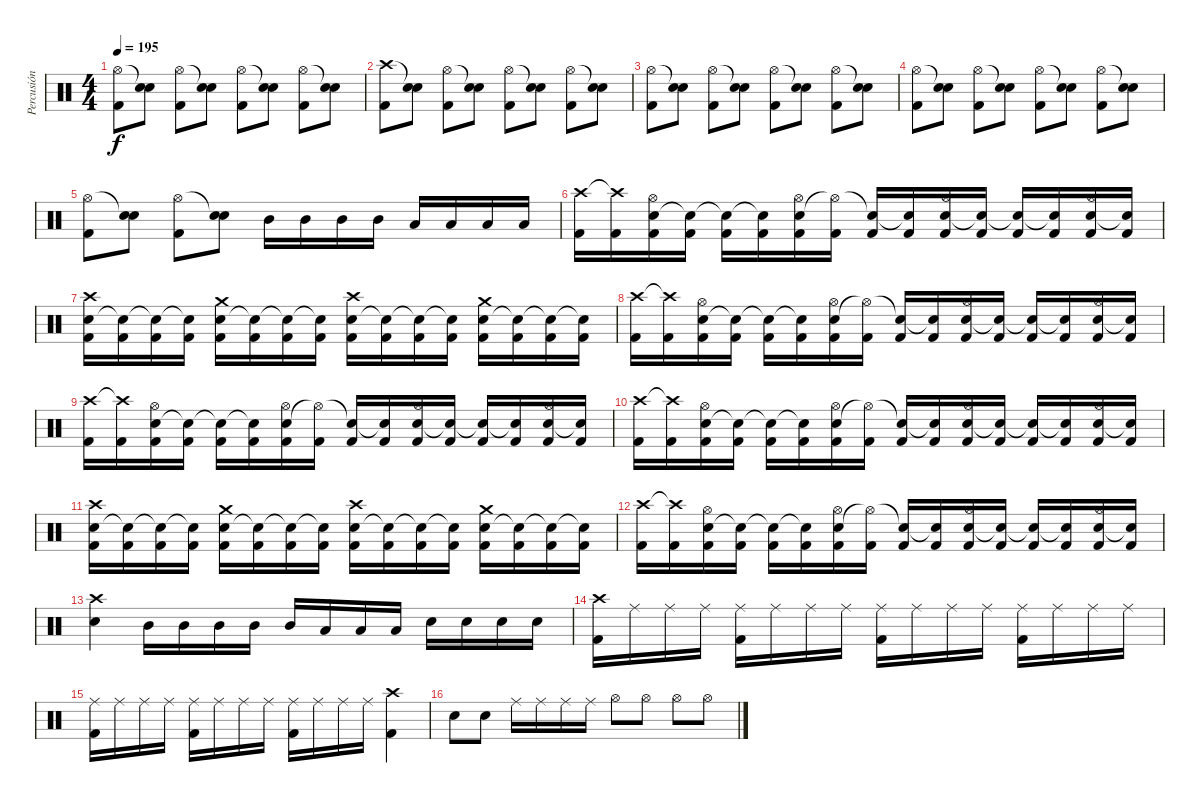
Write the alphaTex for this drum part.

\track ("Percusión" "Percusión") {instrument percussion}
\staff {score}
\articulation defaults
\ts (4 4)
\tempo 195
\clef neutral
\ks c
("Kick (hit) 2" "Hi-Hat (open)").8{dy f} ("Snare (hit) 2" "Snare (hit)"{t}).8 ("Kick (hit) 2" "Hi-Hat (open)").8 ("Snare (hit) 2" "Snare (hit)"{t}).8 ("Kick (hit) 2" "Hi-Hat (open)").8 ("Snare (hit) 2" "Snare (hit)"{t}).8 ("Kick (hit) 2" "Hi-Hat (open)").8 ("Snare (hit) 2" "Snare (hit)"{t}).8 |
("Kick (hit) 2" "Crash high (hit)").8 ("Snare (hit) 2" "Snare (hit)"{t}).8 ("Kick (hit) 2" "Hi-Hat (open)").8 ("Snare (hit) 2" "Snare (hit)"{t}).8 ("Kick (hit) 2" "Hi-Hat (open)").8 ("Snare (hit) 2" "Snare (hit)"{t}).8 ("Kick (hit) 2" "Hi-Hat (open)").8 ("Snare (hit) 2" "Snare (hit)"{t}).8 |
("Kick (hit) 2" "Hi-Hat (open)").8 ("Snare (hit) 2" "Snare (hit)"{t}).8 ("Kick (hit) 2" "Hi-Hat (open)").8 ("Snare (hit) 2" "Snare (hit)"{t}).8 ("Kick (hit) 2" "Hi-Hat (open)").8 ("Snare (hit) 2" "Snare (hit)"{t}).8 ("Kick (hit) 2" "Hi-Hat (open)").8 ("Snare (hit) 2" "Snare (hit)"{t}).8 |
("Kick (hit) 2" "Hi-Hat (open)").8 ("Snare (hit) 2" "Snare (hit)"{t}).8 ("Kick (hit) 2" "Hi-Hat (open)").8 ("Snare (hit) 2" "Snare (hit)"{t}).8 ("Kick (hit) 2" "Hi-Hat (open)").8 ("Snare (hit) 2" "Snare (hit)"{t}).8 ("Kick (hit) 2" "Hi-Hat (open)").8 ("Snare (hit) 2" "Snare (hit)"{t}).8 |
("Kick (hit) 2" "Hi-Hat (open)").8 ("Snare (hit) 2" "Snare (hit)"{t}).8 ("Kick (hit) 2" "Hi-Hat (open)").8 ("Snare (hit) 2" "Snare (hit)"{t}).8 "Mid Tom (hit)".16 "Mid Tom (hit)".16 "Mid Tom (hit)".16 "Mid Tom (hit)".16 "Low Tom (hit)".16 "Low Tom (hit)".16 "Low Tom (hit)".16 "Low Tom (hit)".16 |
("Kick (hit) 2" "Crash high (hit)").16 ("Kick (hit) 2" "Crash high (hit)"{t}).16 ("Kick (hit) 2" "Snare (hit) 2" "Hi-Hat (open)").16 ("Kick (hit) 2" "Snare (hit)"{t}).16 ("Kick (hit) 2" "Snare (hit)"{t}).16 ("Kick (hit) 2" "Snare (hit)"{t}).16 ("Kick (hit) 2" "Snare (hit) 2" "Hi-Hat (open)").16 ("Kick (hit) 2" "Hi-Hat (open)"{t}).16 ("Kick (hit) 2" "Snare (hit)"{t}).16 ("Kick (hit) 2" "Snare (hit)"{t}).16 ("Kick (hit) 2" "Snare (hit) 2" "Hi-Hat (open)").16 ("Kick (hit) 2" "Snare (hit)"{t}).16 ("Kick (hit) 2" "Snare (hit)"{t}).16 ("Kick (hit) 2" "Snare (hit)"{t}).16 ("Kick (hit) 2" "Snare (hit) 2" "Hi-Hat (open)").16 ("Kick (hit) 2" "Snare (hit)"{t}).16 |
("Kick (hit) 2" "Snare (hit) 2" "Crash high (hit)").16 ("Kick (hit) 2" "Snare (hit)"{t}).16 ("Kick (hit) 2" "Snare (hit)"{t}).16 ("Kick (hit) 2" "Snare (hit)"{t}).16 ("Kick (hit) 2" "Snare (hit) 2" "Crash medium (hit)").16 ("Kick (hit) 2" "Snare (hit)"{t}).16 ("Kick (hit) 2" "Snare (hit)"{t}).16 ("Kick (hit) 2" "Snare (hit)"{t}).16 ("Kick (hit) 2" "Snare (hit) 2" "Crash high (hit)").16 ("Kick (hit) 2" "Snare (hit)"{t}).16 ("Kick (hit) 2" "Snare (hit)"{t}).16 ("Kick (hit) 2" "Snare (hit)"{t}).16 ("Kick (hit) 2" "Snare (hit) 2" "Crash medium (hit)").16 ("Kick (hit) 2" "Snare (hit)"{t}).16 ("Kick (hit) 2" "Snare (hit)"{t}).16 ("Kick (hit) 2" "Snare (hit)"{t}).16 |
("Kick (hit) 2" "Crash high (hit)").16 ("Kick (hit) 2" "Crash high (hit)"{t}).16 ("Kick (hit) 2" "Snare (hit) 2" "Hi-Hat (open)").16 ("Kick (hit) 2" "Snare (hit)"{t}).16 ("Kick (hit) 2" "Snare (hit)"{t}).16 ("Kick (hit) 2" "Snare (hit)"{t}).16 ("Kick (hit) 2" "Snare (hit) 2" "Hi-Hat (open)").16 ("Kick (hit) 2" "Hi-Hat (open)"{t}).16 ("Kick (hit) 2" "Snare (hit)"{t}).16 ("Kick (hit) 2" "Snare (hit)"{t}).16 ("Kick (hit) 2" "Snare (hit) 2" "Hi-Hat (open)").16 ("Kick (hit) 2" "Snare (hit)"{t}).16 ("Kick (hit) 2" "Snare (hit)"{t}).16 ("Kick (hit) 2" "Snare (hit)"{t}).16 ("Kick (hit) 2" "Snare (hit) 2" "Hi-Hat (open)").16 ("Kick (hit) 2" "Snare (hit)"{t}).16 |
("Kick (hit) 2" "Crash high (hit)").16 ("Kick (hit) 2" "Crash high (hit)"{t}).16 ("Kick (hit) 2" "Snare (hit) 2" "Hi-Hat (open)").16 ("Kick (hit) 2" "Snare (hit)"{t}).16 ("Kick (hit) 2" "Snare (hit)"{t}).16 ("Kick (hit) 2" "Snare (hit)"{t}).16 ("Kick (hit) 2" "Snare (hit) 2" "Hi-Hat (open)").16 ("Kick (hit) 2" "Hi-Hat (open)"{t}).16 ("Kick (hit) 2" "Snare (hit)"{t}).16 ("Kick (hit) 2" "Snare (hit)"{t}).16 ("Kick (hit) 2" "Snare (hit) 2" "Hi-Hat (open)").16 ("Kick (hit) 2" "Snare (hit)"{t}).16 ("Kick (hit) 2" "Snare (hit)"{t}).16 ("Kick (hit) 2" "Snare (hit)"{t}).16 ("Kick (hit) 2" "Snare (hit) 2" "Hi-Hat (open)").16 ("Kick (hit) 2" "Snare (hit)"{t}).16 |
("Kick (hit) 2" "Crash high (hit)").16 ("Kick (hit) 2" "Crash high (hit)"{t}).16 ("Kick (hit) 2" "Snare (hit) 2" "Hi-Hat (open)").16 ("Kick (hit) 2" "Snare (hit)"{t}).16 ("Kick (hit) 2" "Snare (hit)"{t}).16 ("Kick (hit) 2" "Snare (hit)"{t}).16 ("Kick (hit) 2" "Snare (hit) 2" "Hi-Hat (open)").16 ("Kick (hit) 2" "Hi-Hat (open)"{t}).16 ("Kick (hit) 2" "Snare (hit)"{t}).16 ("Kick (hit) 2" "Snare (hit)"{t}).16 ("Kick (hit) 2" "Snare (hit) 2" "Hi-Hat (open)").16 ("Kick (hit) 2" "Snare (hit)"{t}).16 ("Kick (hit) 2" "Snare (hit)"{t}).16 ("Kick (hit) 2" "Snare (hit)"{t}).16 ("Kick (hit) 2" "Snare (hit) 2" "Hi-Hat (open)").16 ("Kick (hit) 2" "Snare (hit)"{t}).16 |
("Kick (hit) 2" "Snare (hit) 2" "Crash high (hit)").16 ("Kick (hit) 2" "Snare (hit)"{t}).16 ("Kick (hit) 2" "Snare (hit)"{t}).16 ("Kick (hit) 2" "Snare (hit)"{t}).16 ("Kick (hit) 2" "Snare (hit) 2" "Crash medium (hit)").16 ("Kick (hit) 2" "Snare (hit)"{t}).16 ("Kick (hit) 2" "Snare (hit)"{t}).16 ("Kick (hit) 2" "Snare (hit)"{t}).16 ("Kick (hit) 2" "Snare (hit) 2" "Crash high (hit)").16 ("Kick (hit) 2" "Snare (hit)"{t}).16 ("Kick (hit) 2" "Snare (hit)"{t}).16 ("Kick (hit) 2" "Snare (hit)"{t}).16 ("Kick (hit) 2" "Snare (hit) 2" "Crash medium (hit)").16 ("Kick (hit) 2" "Snare (hit)"{t}).16 ("Kick (hit) 2" "Snare (hit)"{t}).16 ("Kick (hit) 2" "Snare (hit)"{t}).16 |
("Kick (hit) 2" "Crash high (hit)").16 ("Kick (hit) 2" "Crash high (hit)"{t}).16 ("Kick (hit) 2" "Snare (hit) 2" "Hi-Hat (open)").16 ("Kick (hit) 2" "Snare (hit)"{t}).16 ("Kick (hit) 2" "Snare (hit)"{t}).16 ("Kick (hit) 2" "Snare (hit)"{t}).16 ("Kick (hit) 2" "Snare (hit) 2" "Hi-Hat (open)").16 ("Kick (hit) 2" "Hi-Hat (open)"{t}).16 ("Kick (hit) 2" "Snare (hit)"{t}).16 ("Kick (hit) 2" "Snare (hit)"{t}).16 ("Kick (hit) 2" "Snare (hit) 2" "Hi-Hat (open)").16 ("Kick (hit) 2" "Snare (hit)"{t}).16 ("Kick (hit) 2" "Snare (hit)"{t}).16 ("Kick (hit) 2" "Snare (hit)"{t}).16 ("Kick (hit) 2" "Snare (hit) 2" "Hi-Hat (open)").16 ("Kick (hit) 2" "Snare (hit)"{t}).16 |
("Snare (hit) 2" "Crash high (hit)").4 "Mid Tom (hit)".16 "Mid Tom (hit)".16 "Mid Tom (hit)".16 "Mid Tom (hit)".16 "Mid Tom (hit)".16 "Low Tom (hit)".16 "Low Tom (hit)".16 "Low Tom (hit)".16 "Snare (hit) 2".16 "Snare (hit) 2".16 "Snare (hit) 2".16 "Snare (hit) 2".16 |
("Kick (hit) 2" "Crash high (hit)").16 "Ride (middle)".16 "Ride (middle)".16 "Ride (middle)".16 ("Kick (hit) 2" "Ride (middle)").16 "Ride (middle)".16 "Ride (middle)".16 "Ride (middle)".16 ("Kick (hit) 2" "Ride (middle)").16 "Ride (middle)".16 "Ride (middle)".16 "Ride (middle)".16 ("Kick (hit) 2" "Ride (middle)").16 "Ride (middle)".16 "Ride (middle)".16 "Ride (middle)".16 |
("Kick (hit) 2" "Ride (middle)").16 "Ride (middle)".16 "Ride (middle)".16 "Ride (middle)".16 ("Kick (hit) 2" "Ride (middle)").16 "Ride (middle)".16 "Ride (middle)".16 "Ride (middle)".16 ("Kick (hit) 2" "Ride (middle)").16 "Ride (middle)".16 "Ride (middle)".16 "Ride (middle)".16 ("Kick (hit) 2" "Crash high (hit)").4 |
"Snare (hit) 2".8 "Snare (hit) 2".8 "Ride (middle)".16 "Ride (middle)".16 "Ride (middle)".16 "Ride (middle)".16 "Hi-Hat (open)".8 "Hi-Hat (open)".8 "Hi-Hat (open)".8 "Hi-Hat (open)".8
